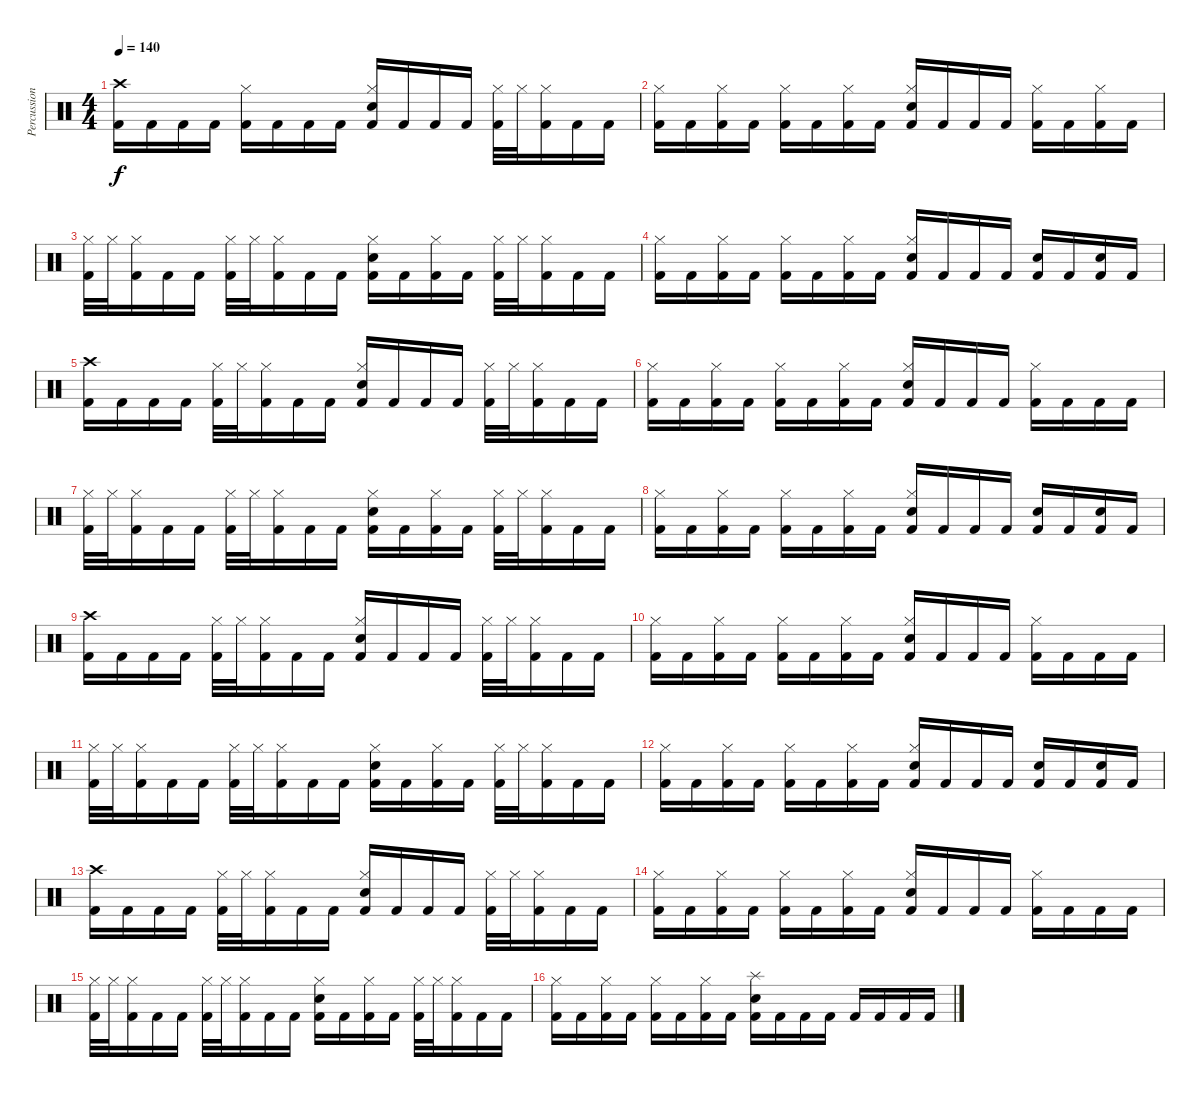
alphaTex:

\track ("Percussion" "Percussion") {instrument percussion}
\staff {score}
\articulation defaults
\ts (4 4)
\tempo 140
\clef neutral
\ks c
("Crash high (hit)" "Kick (hit) 2").16{dy f} "Kick (hit) 2".16 "Kick (hit) 2".16 "Kick (hit) 2".16 ("Hi-Hat (closed)" "Kick (hit) 2").16 "Kick (hit) 2".16 "Kick (hit) 2".16 "Kick (hit) 2".16 ("Hi-Hat (closed)" "Snare (hit) 2" "Kick (hit) 2").16 "Kick (hit) 2".16 "Kick (hit) 2".16 "Kick (hit) 2".16 ("Hi-Hat (closed)" "Kick (hit) 2").32 "Hi-Hat (closed)".32 ("Hi-Hat (closed)" "Kick (hit) 2").16 "Kick (hit) 2".16 "Kick (hit) 2".16 |
("Hi-Hat (closed)" "Kick (hit) 2").16 "Kick (hit) 2".16 ("Hi-Hat (closed)" "Kick (hit) 2").16 "Kick (hit) 2".16 ("Hi-Hat (closed)" "Kick (hit) 2").16 "Kick (hit) 2".16 ("Hi-Hat (closed)" "Kick (hit) 2").16 "Kick (hit) 2".16 ("Hi-Hat (closed)" "Snare (hit) 2" "Kick (hit) 2").16 "Kick (hit) 2".16 "Kick (hit) 2".16 "Kick (hit) 2".16 ("Hi-Hat (closed)" "Kick (hit) 2").16 "Kick (hit) 2".16 ("Hi-Hat (closed)" "Kick (hit) 2").16 "Kick (hit) 2".16 |
("Hi-Hat (closed)" "Kick (hit) 2").32 "Hi-Hat (closed)".32 ("Hi-Hat (closed)" "Kick (hit) 2").16 "Kick (hit) 2".16 "Kick (hit) 2".16 ("Hi-Hat (closed)" "Kick (hit) 2").32 "Hi-Hat (closed)".32 ("Hi-Hat (closed)" "Kick (hit) 2").16 "Kick (hit) 2".16 "Kick (hit) 2".16 ("Hi-Hat (closed)" "Snare (hit) 2" "Kick (hit) 2").16 "Kick (hit) 2".16 ("Hi-Hat (closed)" "Kick (hit) 2").16 "Kick (hit) 2".16 ("Hi-Hat (closed)" "Kick (hit) 2").32 "Hi-Hat (closed)".32 ("Hi-Hat (closed)" "Kick (hit) 2").16 "Kick (hit) 2".16 "Kick (hit) 2".16 |
("Hi-Hat (closed)" "Kick (hit) 2").16 "Kick (hit) 2".16 ("Hi-Hat (closed)" "Kick (hit) 2").16 "Kick (hit) 2".16 ("Hi-Hat (closed)" "Kick (hit) 2").16 "Kick (hit) 2".16 ("Hi-Hat (closed)" "Kick (hit) 2").16 "Kick (hit) 2".16 ("Hi-Hat (closed)" "Snare (hit) 2" "Kick (hit) 2").16 "Kick (hit) 2".16 "Kick (hit) 2".16 "Kick (hit) 2".16 ("Snare (hit) 2" "Kick (hit) 2").16 "Kick (hit) 2".16 ("Snare (hit) 2" "Kick (hit) 2").16 "Kick (hit) 2".16 |
("Crash high (hit)" "Kick (hit) 2").16 "Kick (hit) 2".16 "Kick (hit) 2".16 "Kick (hit) 2".16 ("Hi-Hat (closed)" "Kick (hit) 2").32 "Hi-Hat (closed)".32 ("Hi-Hat (closed)" "Kick (hit) 2").16 "Kick (hit) 2".16 "Kick (hit) 2".16 ("Hi-Hat (closed)" "Snare (hit) 2" "Kick (hit) 2").16 "Kick (hit) 2".16 "Kick (hit) 2".16 "Kick (hit) 2".16 ("Hi-Hat (closed)" "Kick (hit) 2").32 "Hi-Hat (closed)".32 ("Hi-Hat (closed)" "Kick (hit) 2").16 "Kick (hit) 2".16 "Kick (hit) 2".16 |
("Hi-Hat (closed)" "Kick (hit) 2").16 "Kick (hit) 2".16 ("Hi-Hat (closed)" "Kick (hit) 2").16 "Kick (hit) 2".16 ("Hi-Hat (closed)" "Kick (hit) 2").16 "Kick (hit) 2".16 ("Hi-Hat (closed)" "Kick (hit) 2").16 "Kick (hit) 2".16 ("Hi-Hat (closed)" "Snare (hit) 2" "Kick (hit) 2").16 "Kick (hit) 2".16 "Kick (hit) 2".16 "Kick (hit) 2".16 ("Hi-Hat (closed)" "Kick (hit) 2").16 "Kick (hit) 2".16 "Kick (hit) 2".16 "Kick (hit) 2".16 |
("Hi-Hat (closed)" "Kick (hit) 2").32 "Hi-Hat (closed)".32 ("Hi-Hat (closed)" "Kick (hit) 2").16 "Kick (hit) 2".16 "Kick (hit) 2".16 ("Hi-Hat (closed)" "Kick (hit) 2").32 "Hi-Hat (closed)".32 ("Hi-Hat (closed)" "Kick (hit) 2").16 "Kick (hit) 2".16 "Kick (hit) 2".16 ("Hi-Hat (closed)" "Snare (hit) 2" "Kick (hit) 2").16 "Kick (hit) 2".16 ("Hi-Hat (closed)" "Kick (hit) 2").16 "Kick (hit) 2".16 ("Hi-Hat (closed)" "Kick (hit) 2").32 "Hi-Hat (closed)".32 ("Hi-Hat (closed)" "Kick (hit) 2").16 "Kick (hit) 2".16 "Kick (hit) 2".16 |
("Hi-Hat (closed)" "Kick (hit) 2").16 "Kick (hit) 2".16 ("Hi-Hat (closed)" "Kick (hit) 2").16 "Kick (hit) 2".16 ("Hi-Hat (closed)" "Kick (hit) 2").16 "Kick (hit) 2".16 ("Hi-Hat (closed)" "Kick (hit) 2").16 "Kick (hit) 2".16 ("Hi-Hat (closed)" "Snare (hit) 2" "Kick (hit) 2").16 "Kick (hit) 2".16 "Kick (hit) 2".16 "Kick (hit) 2".16 ("Snare (hit) 2" "Kick (hit) 2").16 "Kick (hit) 2".16 ("Snare (hit) 2" "Kick (hit) 2").16 "Kick (hit) 2".16 |
("Crash high (hit)" "Kick (hit) 2").16 "Kick (hit) 2".16 "Kick (hit) 2".16 "Kick (hit) 2".16 ("Hi-Hat (closed)" "Kick (hit) 2").32 "Hi-Hat (closed)".32 ("Hi-Hat (closed)" "Kick (hit) 2").16 "Kick (hit) 2".16 "Kick (hit) 2".16 ("Hi-Hat (closed)" "Snare (hit) 2" "Kick (hit) 2").16 "Kick (hit) 2".16 "Kick (hit) 2".16 "Kick (hit) 2".16 ("Hi-Hat (closed)" "Kick (hit) 2").32 "Hi-Hat (closed)".32 ("Hi-Hat (closed)" "Kick (hit) 2").16 "Kick (hit) 2".16 "Kick (hit) 2".16 |
("Hi-Hat (closed)" "Kick (hit) 2").16 "Kick (hit) 2".16 ("Hi-Hat (closed)" "Kick (hit) 2").16 "Kick (hit) 2".16 ("Hi-Hat (closed)" "Kick (hit) 2").16 "Kick (hit) 2".16 ("Hi-Hat (closed)" "Kick (hit) 2").16 "Kick (hit) 2".16 ("Hi-Hat (closed)" "Snare (hit) 2" "Kick (hit) 2").16 "Kick (hit) 2".16 "Kick (hit) 2".16 "Kick (hit) 2".16 ("Hi-Hat (closed)" "Kick (hit) 2").16 "Kick (hit) 2".16 "Kick (hit) 2".16 "Kick (hit) 2".16 |
("Hi-Hat (closed)" "Kick (hit) 2").32 "Hi-Hat (closed)".32 ("Hi-Hat (closed)" "Kick (hit) 2").16 "Kick (hit) 2".16 "Kick (hit) 2".16 ("Hi-Hat (closed)" "Kick (hit) 2").32 "Hi-Hat (closed)".32 ("Hi-Hat (closed)" "Kick (hit) 2").16 "Kick (hit) 2".16 "Kick (hit) 2".16 ("Hi-Hat (closed)" "Snare (hit) 2" "Kick (hit) 2").16 "Kick (hit) 2".16 ("Hi-Hat (closed)" "Kick (hit) 2").16 "Kick (hit) 2".16 ("Hi-Hat (closed)" "Kick (hit) 2").32 "Hi-Hat (closed)".32 ("Hi-Hat (closed)" "Kick (hit) 2").16 "Kick (hit) 2".16 "Kick (hit) 2".16 |
("Hi-Hat (closed)" "Kick (hit) 2").16 "Kick (hit) 2".16 ("Hi-Hat (closed)" "Kick (hit) 2").16 "Kick (hit) 2".16 ("Hi-Hat (closed)" "Kick (hit) 2").16 "Kick (hit) 2".16 ("Hi-Hat (closed)" "Kick (hit) 2").16 "Kick (hit) 2".16 ("Hi-Hat (closed)" "Snare (hit) 2" "Kick (hit) 2").16 "Kick (hit) 2".16 "Kick (hit) 2".16 "Kick (hit) 2".16 ("Snare (hit) 2" "Kick (hit) 2").16 "Kick (hit) 2".16 ("Snare (hit) 2" "Kick (hit) 2").16 "Kick (hit) 2".16 |
("Crash high (hit)" "Kick (hit) 2").16 "Kick (hit) 2".16 "Kick (hit) 2".16 "Kick (hit) 2".16 ("Hi-Hat (closed)" "Kick (hit) 2").32 "Hi-Hat (closed)".32 ("Hi-Hat (closed)" "Kick (hit) 2").16 "Kick (hit) 2".16 "Kick (hit) 2".16 ("Hi-Hat (closed)" "Snare (hit) 2" "Kick (hit) 2").16 "Kick (hit) 2".16 "Kick (hit) 2".16 "Kick (hit) 2".16 ("Hi-Hat (closed)" "Kick (hit) 2").32 "Hi-Hat (closed)".32 ("Hi-Hat (closed)" "Kick (hit) 2").16 "Kick (hit) 2".16 "Kick (hit) 2".16 |
("Hi-Hat (closed)" "Kick (hit) 2").16 "Kick (hit) 2".16 ("Hi-Hat (closed)" "Kick (hit) 2").16 "Kick (hit) 2".16 ("Hi-Hat (closed)" "Kick (hit) 2").16 "Kick (hit) 2".16 ("Hi-Hat (closed)" "Kick (hit) 2").16 "Kick (hit) 2".16 ("Hi-Hat (closed)" "Snare (hit) 2" "Kick (hit) 2").16 "Kick (hit) 2".16 "Kick (hit) 2".16 "Kick (hit) 2".16 ("Hi-Hat (closed)" "Kick (hit) 2").16 "Kick (hit) 2".16 "Kick (hit) 2".16 "Kick (hit) 2".16 |
("Hi-Hat (closed)" "Kick (hit) 2").32 "Hi-Hat (closed)".32 ("Hi-Hat (closed)" "Kick (hit) 2").16 "Kick (hit) 2".16 "Kick (hit) 2".16 ("Hi-Hat (closed)" "Kick (hit) 2").32 "Hi-Hat (closed)".32 ("Hi-Hat (closed)" "Kick (hit) 2").16 "Kick (hit) 2".16 "Kick (hit) 2".16 ("Hi-Hat (closed)" "Snare (hit) 2" "Kick (hit) 2").16 "Kick (hit) 2".16 ("Hi-Hat (closed)" "Kick (hit) 2").16 "Kick (hit) 2".16 ("Hi-Hat (closed)" "Kick (hit) 2").32 "Hi-Hat (closed)".32 ("Hi-Hat (closed)" "Kick (hit) 2").16 "Kick (hit) 2".16 "Kick (hit) 2".16 |
("Hi-Hat (closed)" "Kick (hit) 2").16 "Kick (hit) 2".16 ("Hi-Hat (closed)" "Kick (hit) 2").16 "Kick (hit) 2".16 ("Hi-Hat (closed)" "Kick (hit) 2").16 "Kick (hit) 2".16 ("Hi-Hat (closed)" "Kick (hit) 2").16 "Kick (hit) 2".16 ("Splash (hit)" "Snare (hit) 2" "Kick (hit) 2").16 "Kick (hit) 2".16 "Kick (hit) 2".16 "Kick (hit) 2".16 "Kick (hit) 2".16 "Kick (hit) 2".16 "Kick (hit) 2".16 "Kick (hit) 2".16
